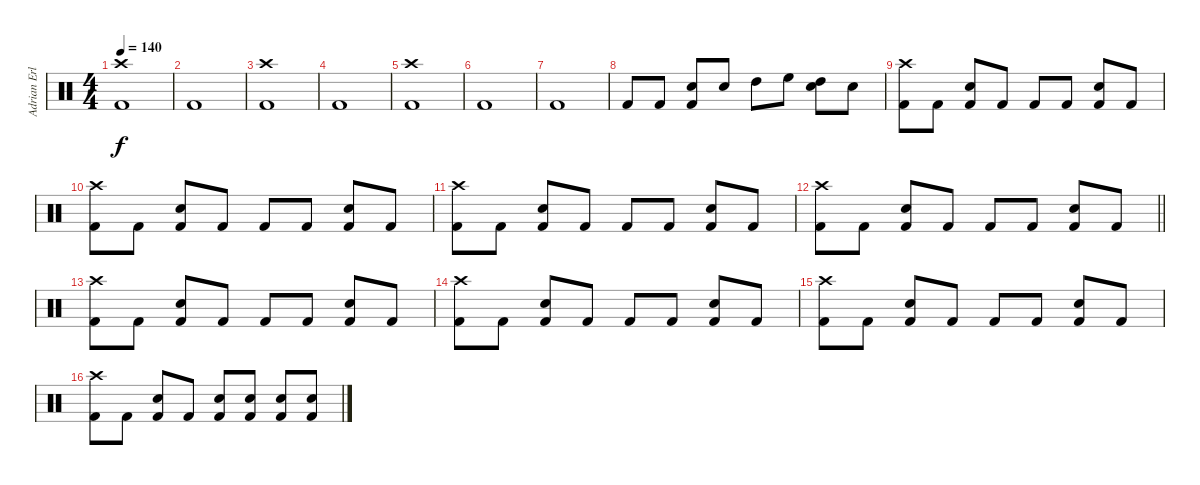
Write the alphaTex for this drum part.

\track ("Adrian Erlandsson" "Adrian Erl") {instrument percussion}
\staff {score}
\articulation defaults
\ts (4 4)
\tempo 140
\clef neutral
\ks c
("Kick (hit) 2" "Crash high (hit)").1{dy f} |
"Kick (hit) 2".1 |
("Kick (hit) 2" "Crash high (hit)").1 |
"Kick (hit) 2".1 |
("Kick (hit) 2" "Crash high (hit)").1 |
"Kick (hit) 2".1 |
"Kick (hit) 2".1 |
"Kick (hit) 2".8 "Kick (hit) 2".8 ("Kick (hit) 2" "Electric Snare (hit)").8 "Snare (hit) 2".8 "High Tom (hit)".8 "High Floor Tom (hit)".8 ("High Tom (hit)" "Electric Snare (hit)").8 "Snare (hit) 2".8 |
("Kick (hit) 2" "Crash high (hit)").8 "Kick (hit) 2".8 ("Kick (hit) 2" "Electric Snare (hit)").8 "Kick (hit) 2".8 "Kick (hit) 2".8 "Kick (hit) 2".8 ("Kick (hit) 2" "Electric Snare (hit)").8 "Kick (hit) 2".8 |
("Kick (hit) 2" "Crash high (hit)").8 "Kick (hit) 2".8 ("Kick (hit) 2" "Electric Snare (hit)").8 "Kick (hit) 2".8 "Kick (hit) 2".8 "Kick (hit) 2".8 ("Kick (hit) 2" "Electric Snare (hit)").8 "Kick (hit) 2".8 |
("Kick (hit) 2" "Crash high (hit)").8 "Kick (hit) 2".8 ("Kick (hit) 2" "Electric Snare (hit)").8 "Kick (hit) 2".8 "Kick (hit) 2".8 "Kick (hit) 2".8 ("Kick (hit) 2" "Electric Snare (hit)").8 "Kick (hit) 2".8 |
\barLineRight lightlight
("Kick (hit) 2" "Crash high (hit)").8 "Kick (hit) 2".8 ("Kick (hit) 2" "Electric Snare (hit)").8 "Kick (hit) 2".8 "Kick (hit) 2".8 "Kick (hit) 2".8 ("Kick (hit) 2" "Electric Snare (hit)").8 "Kick (hit) 2".8 |
("Kick (hit) 2" "Crash high (hit)").8 "Kick (hit) 2".8 ("Kick (hit) 2" "Electric Snare (hit)").8 "Kick (hit) 2".8 "Kick (hit) 2".8 "Kick (hit) 2".8 ("Kick (hit) 2" "Electric Snare (hit)").8 "Kick (hit) 2".8 |
("Kick (hit) 2" "Crash high (hit)").8 "Kick (hit) 2".8 ("Kick (hit) 2" "Electric Snare (hit)").8 "Kick (hit) 2".8 "Kick (hit) 2".8 "Kick (hit) 2".8 ("Kick (hit) 2" "Electric Snare (hit)").8 "Kick (hit) 2".8 |
("Kick (hit) 2" "Crash high (hit)").8 "Kick (hit) 2".8 ("Kick (hit) 2" "Electric Snare (hit)").8 "Kick (hit) 2".8 "Kick (hit) 2".8 "Kick (hit) 2".8 ("Kick (hit) 2" "Electric Snare (hit)").8 "Kick (hit) 2".8 |
("Kick (hit) 2" "Crash high (hit)").8 "Kick (hit) 2".8 ("Kick (hit) 2" "Electric Snare (hit)").8 "Kick (hit) 2".8 ("Kick (hit) 2" "Electric Snare (hit)").8 ("Kick (hit) 2" "Electric Snare (hit)").8 ("Kick (hit) 2" "Electric Snare (hit)").8 ("Kick (hit) 2" "Electric Snare (hit)").8
